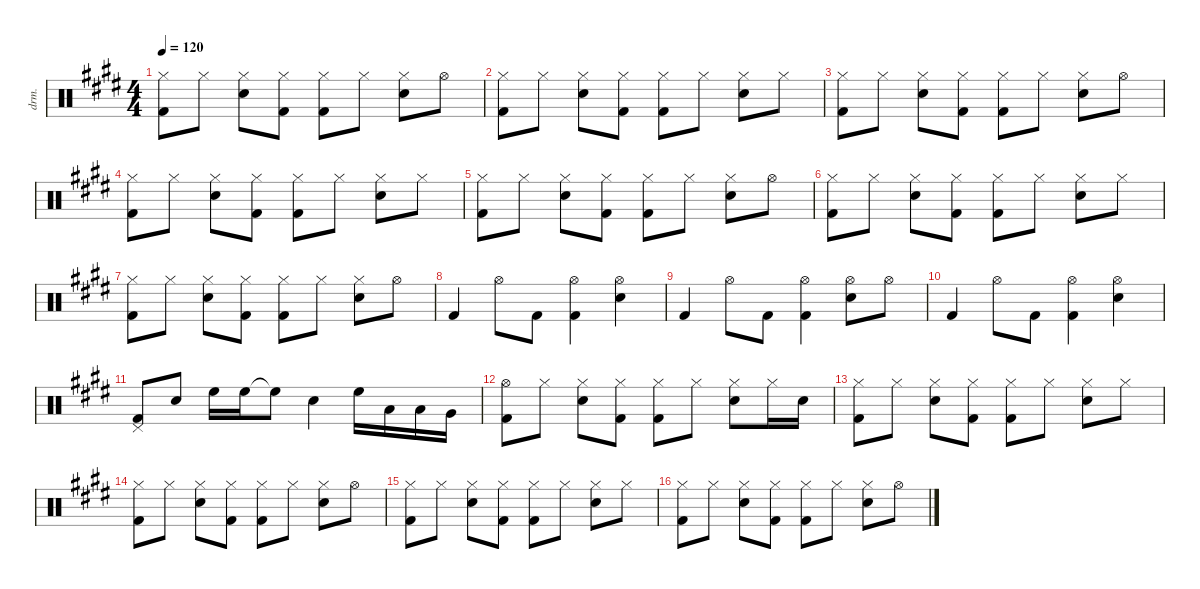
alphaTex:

\defaultSystemsLayout 4
\hideDynamics
\bracketExtendMode nobrackets
\track ("Drum" "drm.") {instrument percussion}
\staff {score}
\articulation defaults
\ts (4 4)
\tempo 120
\clef neutral
\ks e
("Hi-Hat (closed)"{acc forcenatural} "Kick (hit) 2"{acc forcenatural}).8{dy f beam Down} "Hi-Hat (closed)"{acc forcenatural}.8{beam Down} ("Hi-Hat (closed)"{acc forcenatural} "Snare (hit) 2"{acc forcenatural}).8{beam Down} ("Hi-Hat (closed)"{acc forcenatural} "Kick (hit) 2"{acc forcenatural}).8{beam Down} ("Hi-Hat (closed)"{acc forcenatural} "Kick (hit) 2"{acc forcenatural}).8{beam Down} "Hi-Hat (closed)"{acc forcenatural}.8{beam Down} ("Hi-Hat (closed)"{acc forcenatural} "Snare (hit) 2"{acc forcenatural}).8{beam Down} "Hi-Hat (open)"{acc forcenatural}.8{beam Down} |
("Hi-Hat (closed)"{acc forcenatural} "Kick (hit) 2"{acc forcenatural}).8{beam Down} "Hi-Hat (closed)"{acc forcenatural}.8{beam Down} ("Hi-Hat (closed)"{acc forcenatural} "Snare (hit) 2"{acc forcenatural}).8{beam Down} ("Hi-Hat (closed)"{acc forcenatural} "Kick (hit) 2"{acc forcenatural}).8{beam Down} ("Hi-Hat (closed)"{acc forcenatural} "Kick (hit) 2"{acc forcenatural}).8{beam Down} "Hi-Hat (closed)"{acc forcenatural}.8{beam Down} ("Hi-Hat (closed)"{acc forcenatural} "Snare (hit) 2"{acc forcenatural}).8{beam Down} "Hi-Hat (closed)"{acc forcenatural}.8{beam Down} |
("Hi-Hat (closed)"{acc forcenatural} "Kick (hit) 2"{acc forcenatural}).8{beam Down} "Hi-Hat (closed)"{acc forcenatural}.8{beam Down} ("Hi-Hat (closed)"{acc forcenatural} "Snare (hit) 2"{acc forcenatural}).8{beam Down} ("Hi-Hat (closed)"{acc forcenatural} "Kick (hit) 2"{acc forcenatural}).8{beam Down} ("Hi-Hat (closed)"{acc forcenatural} "Kick (hit) 2"{acc forcenatural}).8{beam Down} "Hi-Hat (closed)"{acc forcenatural}.8{beam Down} ("Hi-Hat (closed)"{acc forcenatural} "Snare (hit) 2"{acc forcenatural}).8{beam Down} "Hi-Hat (open)"{acc forcenatural}.8{beam Down} |
("Hi-Hat (closed)"{acc forcenatural} "Kick (hit) 2"{acc forcenatural}).8{beam Down} "Hi-Hat (closed)"{acc forcenatural}.8{beam Down} ("Hi-Hat (closed)"{acc forcenatural} "Snare (hit) 2"{acc forcenatural}).8{beam Down} ("Hi-Hat (closed)"{acc forcenatural} "Kick (hit) 2"{acc forcenatural}).8{beam Down} ("Hi-Hat (closed)"{acc forcenatural} "Kick (hit) 2"{acc forcenatural}).8{beam Down} "Hi-Hat (closed)"{acc forcenatural}.8{beam Down} ("Hi-Hat (closed)"{acc forcenatural} "Snare (hit) 2"{acc forcenatural}).8{beam Down} "Hi-Hat (closed)"{acc forcenatural}.8{beam Down} |
("Hi-Hat (closed)"{acc forcenatural} "Kick (hit) 2"{acc forcenatural}).8{beam Down} "Hi-Hat (closed)"{acc forcenatural}.8{beam Down} ("Hi-Hat (closed)"{acc forcenatural} "Snare (hit) 2"{acc forcenatural}).8{beam Down} ("Hi-Hat (closed)"{acc forcenatural} "Kick (hit) 2"{acc forcenatural}).8{beam Down} ("Hi-Hat (closed)"{acc forcenatural} "Kick (hit) 2"{acc forcenatural}).8{beam Down} "Hi-Hat (closed)"{acc forcenatural}.8{beam Down} ("Hi-Hat (closed)"{acc forcenatural} "Snare (hit) 2"{acc forcenatural}).8{beam Down} "Hi-Hat (open)"{acc forcenatural}.8{beam Down} |
("Hi-Hat (closed)"{acc forcenatural} "Kick (hit) 2"{acc forcenatural}).8{beam Down} "Hi-Hat (closed)"{acc forcenatural}.8{beam Down} ("Hi-Hat (closed)"{acc forcenatural} "Snare (hit) 2"{acc forcenatural}).8{beam Down} ("Hi-Hat (closed)"{acc forcenatural} "Kick (hit) 2"{acc forcenatural}).8{beam Down} ("Hi-Hat (closed)"{acc forcenatural} "Kick (hit) 2"{acc forcenatural}).8{beam Down} "Hi-Hat (closed)"{acc forcenatural}.8{beam Down} ("Hi-Hat (closed)"{acc forcenatural} "Snare (hit) 2"{acc forcenatural}).8{beam Down} "Hi-Hat (closed)"{acc forcenatural}.8{beam Down} |
("Hi-Hat (closed)"{acc forcenatural} "Kick (hit) 2"{acc forcenatural}).8{beam Down} "Hi-Hat (closed)"{acc forcenatural}.8{beam Down} ("Hi-Hat (closed)"{acc forcenatural} "Snare (hit) 2"{acc forcenatural}).8{beam Down} ("Hi-Hat (closed)"{acc forcenatural} "Kick (hit) 2"{acc forcenatural}).8{beam Down} ("Hi-Hat (closed)"{acc forcenatural} "Kick (hit) 2"{acc forcenatural}).8{beam Down} "Hi-Hat (closed)"{acc forcenatural}.8{beam Down} ("Hi-Hat (closed)"{acc forcenatural} "Snare (hit) 2"{acc forcenatural}).8{beam Down} "Hi-Hat (open)"{acc forcenatural}.8{beam Down} |
"Kick (hit) 2"{acc forcenatural}.4{beam Up} "Hi-Hat (open)"{acc forcenatural}.8{beam Down} "Kick (hit) 2"{acc forcenatural}.8{beam Down} ("Hi-Hat (open)"{acc forcenatural} "Kick (hit) 2"{acc forcenatural}).4{beam Down} ("Hi-Hat (open)"{acc forcenatural} "Snare (hit) 2"{acc forcenatural}).4{beam Down} |
"Kick (hit) 2"{acc forcenatural}.4{beam Up} "Hi-Hat (open)"{acc forcenatural}.8{beam Down} "Kick (hit) 2"{acc forcenatural}.8{beam Down} ("Hi-Hat (open)"{acc forcenatural} "Kick (hit) 2"{acc forcenatural}).4{beam Down} ("Hi-Hat (open)"{acc forcenatural} "Snare (hit) 2"{acc forcenatural}).8{beam Down} "Hi-Hat (open)"{acc forcenatural}.8{beam Down} |
"Kick (hit) 2"{acc forcenatural}.4{beam Up} "Hi-Hat (open)"{acc forcenatural}.8{beam Down} "Kick (hit) 2"{acc forcenatural}.8{beam Down} ("Hi-Hat (open)"{acc forcenatural} "Kick (hit) 2"{acc forcenatural}).4{beam Down} ("Hi-Hat (open)"{acc forcenatural} "Snare (hit) 2"{acc forcenatural}).4{beam Down} |
("Pedal Hi-Hat (hit)"{acc forcenatural} "Kick (hit) 2"{acc forcenatural}).8{beam Up} "Snare (hit) 2"{acc forcenatural}.8{beam Up} "High Floor Tom (hit)"{acc forcenatural}.16{beam Down} "High Floor Tom (hit)"{acc forcenatural}.16{beam Down} "High Floor Tom (hit)"{t acc forcenatural}.8{beam Down} "Snare (hit) 2"{acc forcenatural}.4{beam Down} "High Floor Tom (hit)"{acc forcenatural}.16{beam Down} "Low Tom (hit)"{acc forcenatural}.16{beam Down} "Low Tom (hit)"{acc forcenatural}.16{beam Down} "Very Low Tom (hit)"{acc forcenatural}.16{beam Down} |
("Hi-Hat (open)"{acc forcenatural} "Kick (hit) 2"{acc forcenatural}).8{beam Down} "Hi-Hat (closed)"{acc forcenatural}.8{beam Down} ("Hi-Hat (closed)"{acc forcenatural} "Snare (hit) 2"{acc forcenatural}).8{beam Down} ("Hi-Hat (closed)"{acc forcenatural} "Kick (hit) 2"{acc forcenatural}).8{beam Down} ("Hi-Hat (closed)"{acc forcenatural} "Kick (hit) 2"{acc forcenatural}).8{beam Down} "Hi-Hat (closed)"{acc forcenatural}.8{beam Down} ("Hi-Hat (closed)"{acc forcenatural} "Snare (hit) 2"{acc forcenatural}).8{beam Down} "Hi-Hat (closed)"{acc forcenatural}.16{beam Down} "Snare (hit) 2"{acc forcenatural}.16{beam Down} |
("Hi-Hat (closed)"{acc forcenatural} "Kick (hit) 2"{acc forcenatural}).8{beam Down} "Hi-Hat (closed)"{acc forcenatural}.8{beam Down} ("Hi-Hat (closed)"{acc forcenatural} "Snare (hit) 2"{acc forcenatural}).8{beam Down} ("Hi-Hat (closed)"{acc forcenatural} "Kick (hit) 2"{acc forcenatural}).8{beam Down} ("Hi-Hat (closed)"{acc forcenatural} "Kick (hit) 2"{acc forcenatural}).8{beam Down} "Hi-Hat (closed)"{acc forcenatural}.8{beam Down} ("Hi-Hat (closed)"{acc forcenatural} "Snare (hit) 2"{acc forcenatural}).8{beam Down} "Hi-Hat (closed)"{acc forcenatural}.8{beam Down} |
("Hi-Hat (closed)"{acc forcenatural} "Kick (hit) 2"{acc forcenatural}).8{beam Down} "Hi-Hat (closed)"{acc forcenatural}.8{beam Down} ("Hi-Hat (closed)"{acc forcenatural} "Snare (hit) 2"{acc forcenatural}).8{beam Down} ("Hi-Hat (closed)"{acc forcenatural} "Kick (hit) 2"{acc forcenatural}).8{beam Down} ("Hi-Hat (closed)"{acc forcenatural} "Kick (hit) 2"{acc forcenatural}).8{beam Down} "Hi-Hat (closed)"{acc forcenatural}.8{beam Down} ("Hi-Hat (closed)"{acc forcenatural} "Snare (hit) 2"{acc forcenatural}).8{beam Down} "Hi-Hat (open)"{acc forcenatural}.8{beam Down} |
("Hi-Hat (closed)"{acc forcenatural} "Kick (hit) 2"{acc forcenatural}).8{beam Down} "Hi-Hat (closed)"{acc forcenatural}.8{beam Down} ("Hi-Hat (closed)"{acc forcenatural} "Snare (hit) 2"{acc forcenatural}).8{beam Down} ("Hi-Hat (closed)"{acc forcenatural} "Kick (hit) 2"{acc forcenatural}).8{beam Down} ("Hi-Hat (closed)"{acc forcenatural} "Kick (hit) 2"{acc forcenatural}).8{beam Down} "Hi-Hat (closed)"{acc forcenatural}.8{beam Down} ("Hi-Hat (closed)"{acc forcenatural} "Snare (hit) 2"{acc forcenatural}).8{beam Down} "Hi-Hat (closed)"{acc forcenatural}.8{beam Down} |
("Hi-Hat (closed)"{acc forcenatural} "Kick (hit) 2"{acc forcenatural}).8{beam Down} "Hi-Hat (closed)"{acc forcenatural}.8{beam Down} ("Hi-Hat (closed)"{acc forcenatural} "Snare (hit) 2"{acc forcenatural}).8{beam Down} ("Hi-Hat (closed)"{acc forcenatural} "Kick (hit) 2"{acc forcenatural}).8{beam Down} ("Hi-Hat (closed)"{acc forcenatural} "Kick (hit) 2"{acc forcenatural}).8{beam Down} "Hi-Hat (closed)"{acc forcenatural}.8{beam Down} ("Hi-Hat (closed)"{acc forcenatural} "Snare (hit) 2"{acc forcenatural}).8{beam Down} "Hi-Hat (open)"{acc forcenatural}.8{beam Down}
